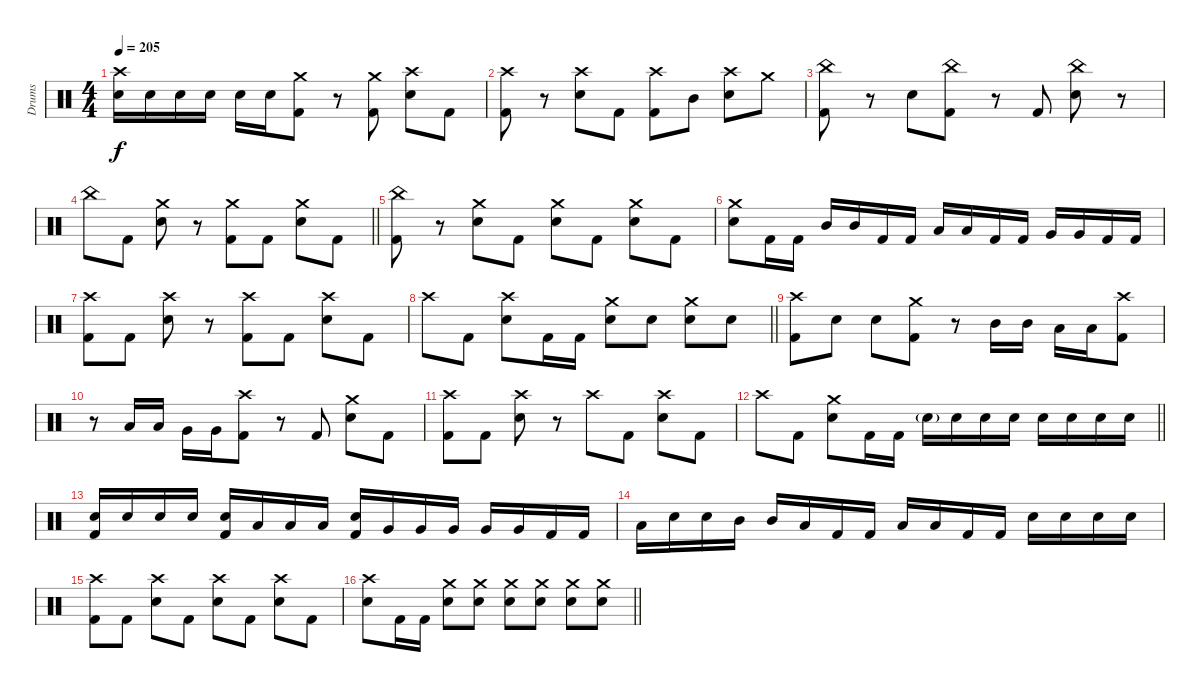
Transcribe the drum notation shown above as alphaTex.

\track ("Drums" "Drums") {instrument percussion}
\staff {score}
\articulation defaults
\ts (4 4)
\tempo 205
\clef neutral
\ks c
("Crash high (hit)" "Electric Snare (hit)").16{dy f} "Electric Snare (hit)".16 "Electric Snare (hit)".16 "Electric Snare (hit)".16 "Electric Snare (hit)".16 "Electric Snare (hit)".16 ("Crash medium (hit)" "Kick (hit) 2").8 r.8 ("Crash medium (hit)" "Kick (hit) 2").8 ("Crash high (hit)" "Electric Snare (hit)").8 "Kick (hit) 2".8 |
("Crash high (hit)" "Kick (hit) 2").8 r.8 ("Crash high (hit)" "Electric Snare (hit)").8 "Kick (hit) 2".8 ("Crash high (hit)" "Kick (hit) 2").8 "Mid Tom (hit)".8 ("Crash high (hit)" "Electric Snare (hit)").8 "Crash medium (hit)".8 |
("China (hit)" "Kick (hit) 2").8 r.8 "Electric Snare (hit)".8 ("China (hit)" "Kick (hit) 2").8 r.8 "Kick (hit) 2".8 ("China (hit)" "Electric Snare (hit)").8 r.8 |
\barLineRight lightlight "China (hit)".8 "Kick (hit) 2".8
("Crash medium (hit)" "Electric Snare (hit)").8 r.8 ("Crash medium (hit)" "Kick (hit) 2").8 "Kick (hit) 2".8 ("Crash medium (hit)" "Electric Snare (hit)").8 "Kick (hit) 2".8 |
("China (hit)" "Kick (hit) 2").8 r.8 ("Crash medium (hit)" "Electric Snare (hit)").8 "Kick (hit) 2".8 ("Crash medium (hit)" "Electric Snare (hit)").8 "Kick (hit) 2".8 ("Crash medium (hit)" "Electric Snare (hit)").8 "Kick (hit) 2".8 |
("Crash medium (hit)" "Electric Snare (hit)").8 "Kick (hit) 2".16 "Kick (hit) 2".16 "Mid Tom (hit)".16 "Mid Tom (hit)".16 "Kick (hit) 2".16 "Kick (hit) 2".16 "Low Tom (hit)".16 "Low Tom (hit)".16 "Kick (hit) 2".16 "Kick (hit) 2".16 "Very Low Tom (hit)".16 "Very Low Tom (hit)".16 "Kick (hit) 2".16 "Kick (hit) 2".16 |
("Crash high (hit)" "Kick (hit) 2").8 "Kick (hit) 2".8 ("Crash high (hit)" "Electric Snare (hit)").8 r.8 ("Crash high (hit)" "Kick (hit) 2").8 "Kick (hit) 2".8 ("Crash high (hit)" "Electric Snare (hit)").8 "Kick (hit) 2".8 |
\barLineRight lightlight "Crash high (hit)".8 "Kick (hit) 2".8
("Crash high (hit)" "Electric Snare (hit)").8 "Kick (hit) 2".16 "Kick (hit) 2".16 ("Crash medium (hit)" "Electric Snare (hit)").8 "Electric Snare (hit)".8 ("Crash medium (hit)" "Electric Snare (hit)").8 "Electric Snare (hit)".8 |
("Crash high (hit)" "Kick (hit) 2").8 "Electric Snare (hit)".8 "Electric Snare (hit)".8 ("Crash medium (hit)" "Kick (hit) 2").8 r.8 "Mid Tom (hit)".16 "Mid Tom (hit)".16 "Low Tom (hit)".16 "Low Tom (hit)".16 ("Crash high (hit)" "Kick (hit) 2").8 |
r.8 "Low Tom (hit)".16 "Low Tom (hit)".16 "Very Low Tom (hit)".16 "Very Low Tom (hit)".16 ("Crash high (hit)" "Kick (hit) 2").8 r.8 "Kick (hit) 2".8 ("Crash medium (hit)" "Electric Snare (hit)").8 "Kick (hit) 2".8 |
("Crash high (hit)" "Kick (hit) 2").8 "Kick (hit) 2".8 ("Crash high (hit)" "Electric Snare (hit)").8 r.8 "Crash high (hit)".8 "Kick (hit) 2".8 ("Crash high (hit)" "Electric Snare (hit)").8 "Kick (hit) 2".8 |
\barLineRight lightlight "Crash high (hit)".8 "Kick (hit) 2".8
("Crash medium (hit)" "Electric Snare (hit)").8 "Kick (hit) 2".16 "Kick (hit) 2".16 "Electric Snare (hit)"{g}.16 "Electric Snare (hit)".16 "Electric Snare (hit)".16 "Electric Snare (hit)".16 "Electric Snare (hit)".16 "Electric Snare (hit)".16 "Electric Snare (hit)".16 "Electric Snare (hit)".16 |
("Electric Snare (hit)" "Kick (hit) 2").16 "Electric Snare (hit)".16 "Electric Snare (hit)".16 "Electric Snare (hit)".16 ("Electric Snare (hit)" "Kick (hit) 2").16 "Low Tom (hit)".16 "Low Tom (hit)".16 "Low Tom (hit)".16 ("Electric Snare (hit)" "Kick (hit) 2").16 "Very Low Tom (hit)".16 "Very Low Tom (hit)".16 "Very Low Tom (hit)".16 "Very Low Tom (hit)".16 "Very Low Tom (hit)".16 "Kick (hit) 2".16 "Kick (hit) 2".16 |
"Low Tom (hit)".16 "Electric Snare (hit)".16 "Electric Snare (hit)".16 "Mid Tom (hit)".16 "Mid Tom (hit)".16 "Low Tom (hit)".16 "Kick (hit) 2".16 "Kick (hit) 2".16 "Low Tom (hit)".16 "Low Tom (hit)".16 "Kick (hit) 2".16 "Kick (hit) 2".16 "Electric Snare (hit)".16 "Electric Snare (hit)".16 "Electric Snare (hit)".16 "Electric Snare (hit)".16 |
("Crash high (hit)" "Kick (hit) 2").8 "Kick (hit) 2".8 ("Crash high (hit)" "Electric Snare (hit)").8 "Kick (hit) 2".8 ("Crash high (hit)" "Electric Snare (hit)").8 "Kick (hit) 2".8 ("Crash high (hit)" "Electric Snare (hit)").8 "Kick (hit) 2".8 |
\barLineRight lightlight
("Crash high (hit)" "Electric Snare (hit)").8 "Kick (hit) 2".16 "Kick (hit) 2".16 ("Crash medium (hit)" "Electric Snare (hit)").8 ("Crash medium (hit)" "Electric Snare (hit)").8 ("Crash medium (hit)" "Electric Snare (hit)").8 ("Crash medium (hit)" "Electric Snare (hit)").8 ("Crash medium (hit)" "Electric Snare (hit)").8 ("Crash medium (hit)" "Electric Snare (hit)").8
